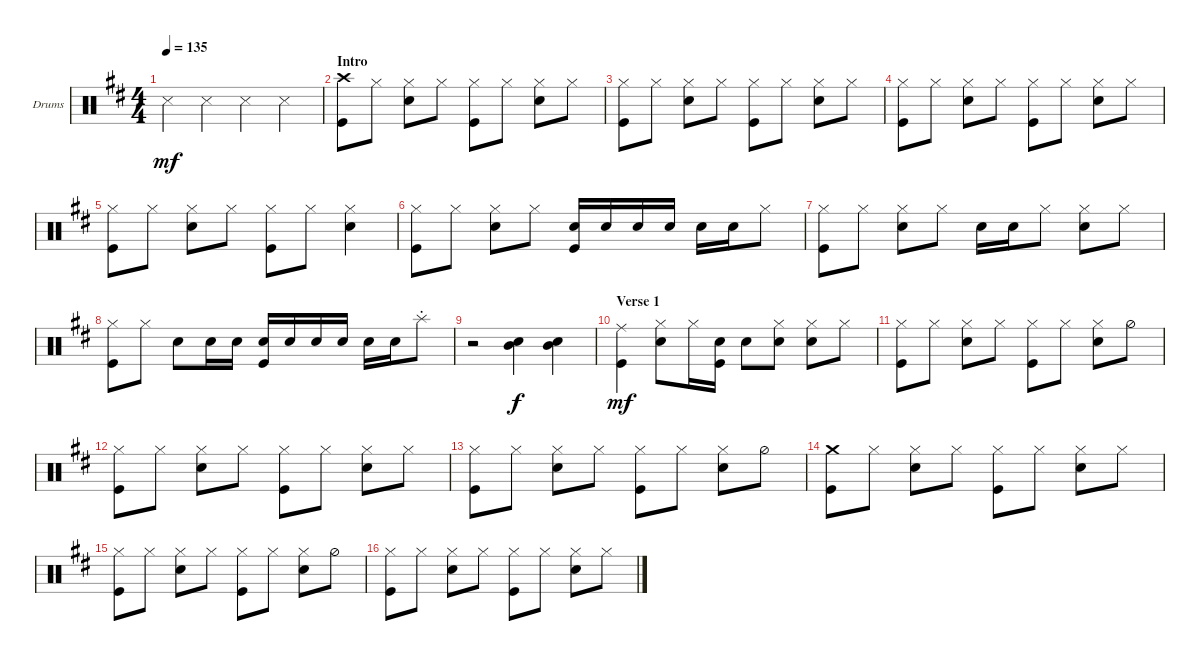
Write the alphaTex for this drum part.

\defaultSystemsLayout 4
\bracketExtendMode groupsimilarinstruments
\firstSystemTrackNameOrientation horizontal
\otherSystemsTrackNameOrientation horizontal
\track ("Drumkit" "Drums") {instrument percussion}
\staff {score}
\articulation defaults
\ts (4 4)
\tempo 135
\clef neutral
\scale
0.474178
\ks bminor "Snare (side stick) 3".4{dy mf} "Snare (side stick) 3".4 "Snare (side stick) 3".4 "Snare (side stick) 3".4
|
\section ("" "Intro")
\scale
0.262911 ("Crash high (hit)" "Kick (hit)").8 "Hi-Hat (closed)".8 ("Hi-Hat (closed)" "Snare (hit) 2").8 "Hi-Hat (closed)".8 ("Hi-Hat (closed)" "Kick (hit)").8 "Hi-Hat (closed)".8 ("Hi-Hat (closed)" "Snare (hit) 2").8 "Hi-Hat (closed)".8 |
\scale
0.262911 ("Hi-Hat (closed)" "Kick (hit)").8 "Hi-Hat (closed)".8 ("Hi-Hat (closed)" "Snare (hit) 2").8 "Hi-Hat (closed)".8 ("Hi-Hat (closed)" "Kick (hit)").8 "Hi-Hat (closed)".8 ("Hi-Hat (closed)" "Snare (hit) 2").8 "Hi-Hat (closed)".8 |
\scale
0.333333 ("Hi-Hat (closed)" "Kick (hit)").8 "Hi-Hat (closed)".8 ("Hi-Hat (closed)" "Snare (hit) 2").8 "Hi-Hat (closed)".8 ("Hi-Hat (closed)" "Kick (hit)").8 "Hi-Hat (closed)".8 ("Hi-Hat (closed)" "Snare (hit) 2").8 "Hi-Hat (closed)".8 |
\scale
0.333333 ("Hi-Hat (closed)" "Kick (hit)").8 "Hi-Hat (closed)".8 ("Hi-Hat (closed)" "Snare (hit) 2").8 "Hi-Hat (closed)".8 ("Hi-Hat (closed)" "Kick (hit)").8 "Hi-Hat (closed)".8 ("Hi-Hat (closed)" "Snare (hit) 2").4 |
\scale
0.333333 ("Hi-Hat (closed)" "Kick (hit)").8 "Hi-Hat (closed)".8 ("Snare (hit) 2" "Hi-Hat (closed)").8 "Hi-Hat (closed)".8 ("Snare (hit) 2" "Kick (hit)").16 "Snare (hit) 2".16 "Snare (hit) 2".16 "Snare (hit) 2".16 "Snare (hit) 2".16 "Snare (hit) 2".16 "Hi-Hat (closed)".8 |
("Hi-Hat (closed)" "Kick (hit)").8 "Hi-Hat (closed)".8 ("Hi-Hat (closed)" "Snare (hit) 2").8 "Hi-Hat (closed)".8 "Snare (hit) 2".16 "Snare (hit) 2".16 "Hi-Hat (closed)".8 ("Snare (hit) 2" "Hi-Hat (closed)").8 "Hi-Hat (closed)".8 |
("Kick (hit)" "Hi-Hat (closed)").8 "Hi-Hat (closed)".8 "Snare (hit) 2".8 "Snare (hit) 2".16 "Snare (hit) 2".16 ("Snare (hit) 2" "Kick (hit)").16 "Snare (hit) 2".16 "Snare (hit) 2".16 "Snare (hit) 2".16 "Snare (hit) 2".16 "Snare (hit) 2".16 "Splash (hit)"{st}.8 |
r.2 ("Snare (hit) 2" "Mid Tom (hit)").4{dy f} ("Snare (hit) 2" "Mid Tom (hit)").4 |
\section ("" "Verse 1")
("Ride (middle)" "Kick (hit)").4{dy mf} ("Snare (hit) 2" "Hi-Hat (closed)").8 "Hi-Hat (closed)".16 ("Snare (hit) 2" "Kick (hit)").16 "Snare (hit) 2".8 ("Hi-Hat (closed)" "Snare (hit) 2").8 ("Hi-Hat (closed)" "Snare (hit) 2").8 "Hi-Hat (closed)".8 |
("Hi-Hat (closed)" "Kick (hit)").8 "Hi-Hat (closed)".8 ("Snare (hit) 2" "Hi-Hat (closed)").8 "Hi-Hat (closed)".8 ("Kick (hit)" "Hi-Hat (closed)").8 "Hi-Hat (closed)".8 ("Snare (hit) 2" "Hi-Hat (closed)").8 "Hi-Hat (half)".8 |
("Hi-Hat (closed)" "Kick (hit)").8 "Hi-Hat (closed)".8 ("Snare (hit) 2" "Hi-Hat (closed)").8 "Hi-Hat (closed)".8 ("Kick (hit)" "Hi-Hat (closed)").8 "Hi-Hat (closed)".8 ("Snare (hit) 2" "Hi-Hat (closed)").8 "Hi-Hat (closed)".8 |
("Hi-Hat (closed)" "Kick (hit)").8 "Hi-Hat (closed)".8 ("Snare (hit) 2" "Hi-Hat (closed)").8 "Hi-Hat (closed)".8 ("Kick (hit)" "Hi-Hat (closed)").8 "Hi-Hat (closed)".8 ("Snare (hit) 2" "Hi-Hat (closed)").8 "Hi-Hat (half)".8 |
("Crash medium (hit)" "Kick (hit)").8 "Hi-Hat (closed)".8 ("Snare (hit) 2" "Hi-Hat (closed)").8 "Hi-Hat (closed)".8 ("Kick (hit)" "Hi-Hat (closed)").8 "Hi-Hat (closed)".8 ("Snare (hit) 2" "Hi-Hat (closed)").8 "Hi-Hat (closed)".8 |
("Hi-Hat (closed)" "Kick (hit)").8 "Hi-Hat (closed)".8 ("Snare (hit) 2" "Hi-Hat (closed)").8 "Hi-Hat (closed)".8 ("Kick (hit)" "Hi-Hat (closed)").8 "Hi-Hat (closed)".8 ("Snare (hit) 2" "Hi-Hat (closed)").8 "Hi-Hat (half)".8 |
("Hi-Hat (closed)" "Kick (hit)").8 "Hi-Hat (closed)".8 ("Snare (hit) 2" "Hi-Hat (closed)").8 "Hi-Hat (closed)".8 ("Kick (hit)" "Hi-Hat (closed)").8 "Hi-Hat (closed)".8 ("Snare (hit) 2" "Hi-Hat (closed)").8 "Hi-Hat (closed)".8
